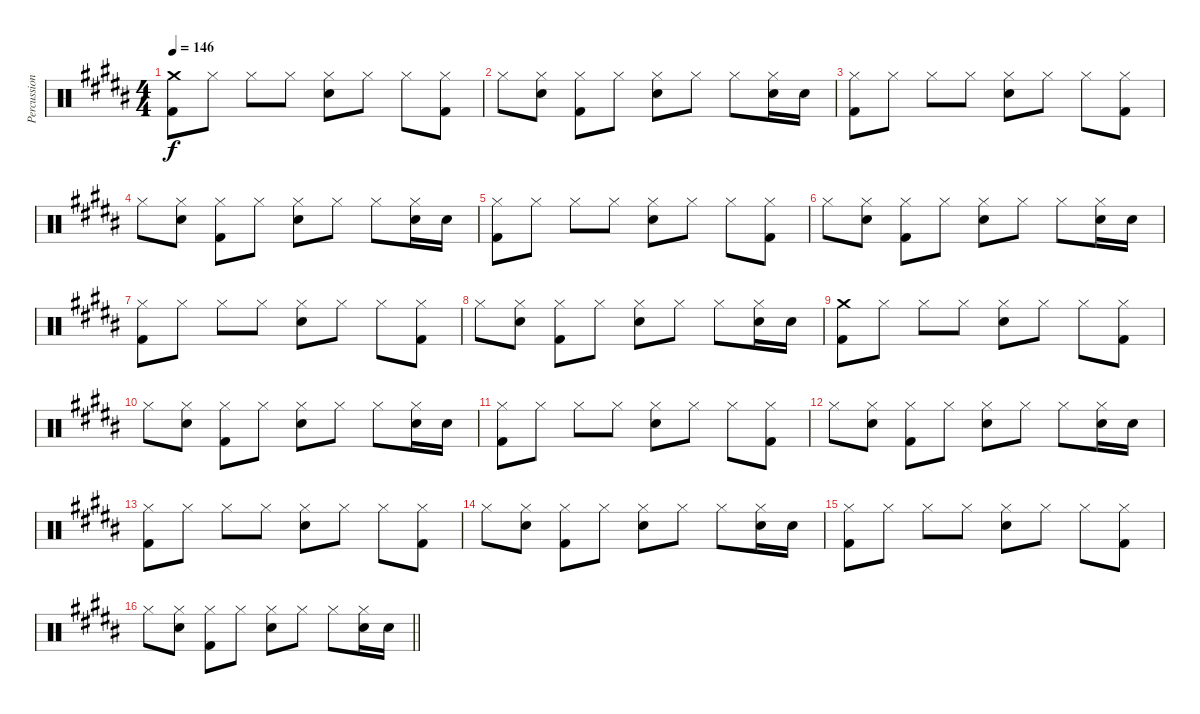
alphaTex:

\track ("Percussion" "Percussion") {instrument percussion}
\staff {score}
\articulation defaults
\ts (4 4)
\tempo 146
\clef neutral
\ks b
("Crash medium (hit)" "Kick (hit) 2").8{dy f} "Hi-Hat (closed)".8 "Hi-Hat (closed)".8 "Hi-Hat (closed)".8 ("Hi-Hat (closed)" "Snare (hit) 2").8 "Hi-Hat (closed)".8 "Hi-Hat (closed)".8 ("Hi-Hat (closed)" "Kick (hit) 2").8 |
"Hi-Hat (closed)".8 ("Hi-Hat (closed)" "Snare (hit) 2").8 ("Hi-Hat (closed)" "Kick (hit) 2").8 "Hi-Hat (closed)".8 ("Hi-Hat (closed)" "Snare (hit) 2").8 "Hi-Hat (closed)".8 "Hi-Hat (closed)".8 ("Hi-Hat (closed)" "Snare (hit) 2").16 "Snare (hit) 2".16 |
("Hi-Hat (closed)" "Kick (hit) 2").8 "Hi-Hat (closed)".8 "Hi-Hat (closed)".8 "Hi-Hat (closed)".8 ("Hi-Hat (closed)" "Snare (hit) 2").8 "Hi-Hat (closed)".8 "Hi-Hat (closed)".8 ("Hi-Hat (closed)" "Kick (hit) 2").8 |
"Hi-Hat (closed)".8 ("Hi-Hat (closed)" "Snare (hit) 2").8 ("Hi-Hat (closed)" "Kick (hit) 2").8 "Hi-Hat (closed)".8 ("Hi-Hat (closed)" "Snare (hit) 2").8 "Hi-Hat (closed)".8 "Hi-Hat (closed)".8 ("Hi-Hat (closed)" "Snare (hit) 2").16 "Snare (hit) 2".16 |
("Hi-Hat (closed)" "Kick (hit) 2").8 "Hi-Hat (closed)".8 "Hi-Hat (closed)".8 "Hi-Hat (closed)".8 ("Hi-Hat (closed)" "Snare (hit) 2").8 "Hi-Hat (closed)".8 "Hi-Hat (closed)".8 ("Hi-Hat (closed)" "Kick (hit) 2").8 |
"Hi-Hat (closed)".8 ("Hi-Hat (closed)" "Snare (hit) 2").8 ("Hi-Hat (closed)" "Kick (hit) 2").8 "Hi-Hat (closed)".8 ("Hi-Hat (closed)" "Snare (hit) 2").8 "Hi-Hat (closed)".8 "Hi-Hat (closed)".8 ("Hi-Hat (closed)" "Snare (hit) 2").16 "Snare (hit) 2".16 |
("Hi-Hat (closed)" "Kick (hit) 2").8 "Hi-Hat (closed)".8 "Hi-Hat (closed)".8 "Hi-Hat (closed)".8 ("Hi-Hat (closed)" "Snare (hit) 2").8 "Hi-Hat (closed)".8 "Hi-Hat (closed)".8 ("Hi-Hat (closed)" "Kick (hit) 2").8 |
"Hi-Hat (closed)".8 ("Hi-Hat (closed)" "Snare (hit) 2").8 ("Hi-Hat (closed)" "Kick (hit) 2").8 "Hi-Hat (closed)".8 ("Hi-Hat (closed)" "Snare (hit) 2").8 "Hi-Hat (closed)".8 "Hi-Hat (closed)".8 ("Hi-Hat (closed)" "Snare (hit) 2").16 "Snare (hit) 2".16 |
("Crash medium (hit)" "Kick (hit) 2").8{volume 8} "Hi-Hat (closed)".8 "Hi-Hat (closed)".8 "Hi-Hat (closed)".8 ("Hi-Hat (closed)" "Snare (hit) 2").8 "Hi-Hat (closed)".8 "Hi-Hat (closed)".8 ("Hi-Hat (closed)" "Kick (hit) 2").8 |
"Hi-Hat (closed)".8 ("Hi-Hat (closed)" "Snare (hit) 2").8 ("Hi-Hat (closed)" "Kick (hit) 2").8 "Hi-Hat (closed)".8 ("Hi-Hat (closed)" "Snare (hit) 2").8 "Hi-Hat (closed)".8 "Hi-Hat (closed)".8 ("Hi-Hat (closed)" "Snare (hit) 2").16 "Snare (hit) 2".16 |
("Hi-Hat (closed)" "Kick (hit) 2").8 "Hi-Hat (closed)".8 "Hi-Hat (closed)".8 "Hi-Hat (closed)".8 ("Hi-Hat (closed)" "Snare (hit) 2").8 "Hi-Hat (closed)".8 "Hi-Hat (closed)".8 ("Hi-Hat (closed)" "Kick (hit) 2").8 |
"Hi-Hat (closed)".8 ("Hi-Hat (closed)" "Snare (hit) 2").8 ("Hi-Hat (closed)" "Kick (hit) 2").8 "Hi-Hat (closed)".8 ("Hi-Hat (closed)" "Snare (hit) 2").8 "Hi-Hat (closed)".8 "Hi-Hat (closed)".8 ("Hi-Hat (closed)" "Snare (hit) 2").16 "Snare (hit) 2".16 |
("Hi-Hat (closed)" "Kick (hit) 2").8{volume 0} "Hi-Hat (closed)".8 "Hi-Hat (closed)".8 "Hi-Hat (closed)".8 ("Hi-Hat (closed)" "Snare (hit) 2").8 "Hi-Hat (closed)".8 "Hi-Hat (closed)".8 ("Hi-Hat (closed)" "Kick (hit) 2").8 |
"Hi-Hat (closed)".8 ("Hi-Hat (closed)" "Snare (hit) 2").8 ("Hi-Hat (closed)" "Kick (hit) 2").8 "Hi-Hat (closed)".8 ("Hi-Hat (closed)" "Snare (hit) 2").8 "Hi-Hat (closed)".8 "Hi-Hat (closed)".8 ("Hi-Hat (closed)" "Snare (hit) 2").16 "Snare (hit) 2".16 |
("Hi-Hat (closed)" "Kick (hit) 2").8 "Hi-Hat (closed)".8 "Hi-Hat (closed)".8 "Hi-Hat (closed)".8 ("Hi-Hat (closed)" "Snare (hit) 2").8 "Hi-Hat (closed)".8 "Hi-Hat (closed)".8 ("Hi-Hat (closed)" "Kick (hit) 2").8 |
\barLineRight lightlight "Hi-Hat (closed)".8
("Hi-Hat (closed)" "Snare (hit) 2").8 ("Hi-Hat (closed)" "Kick (hit) 2").8 "Hi-Hat (closed)".8 ("Hi-Hat (closed)" "Snare (hit) 2").8 "Hi-Hat (closed)".8 "Hi-Hat (closed)".8 ("Hi-Hat (closed)" "Snare (hit) 2").16 "Snare (hit) 2".16
